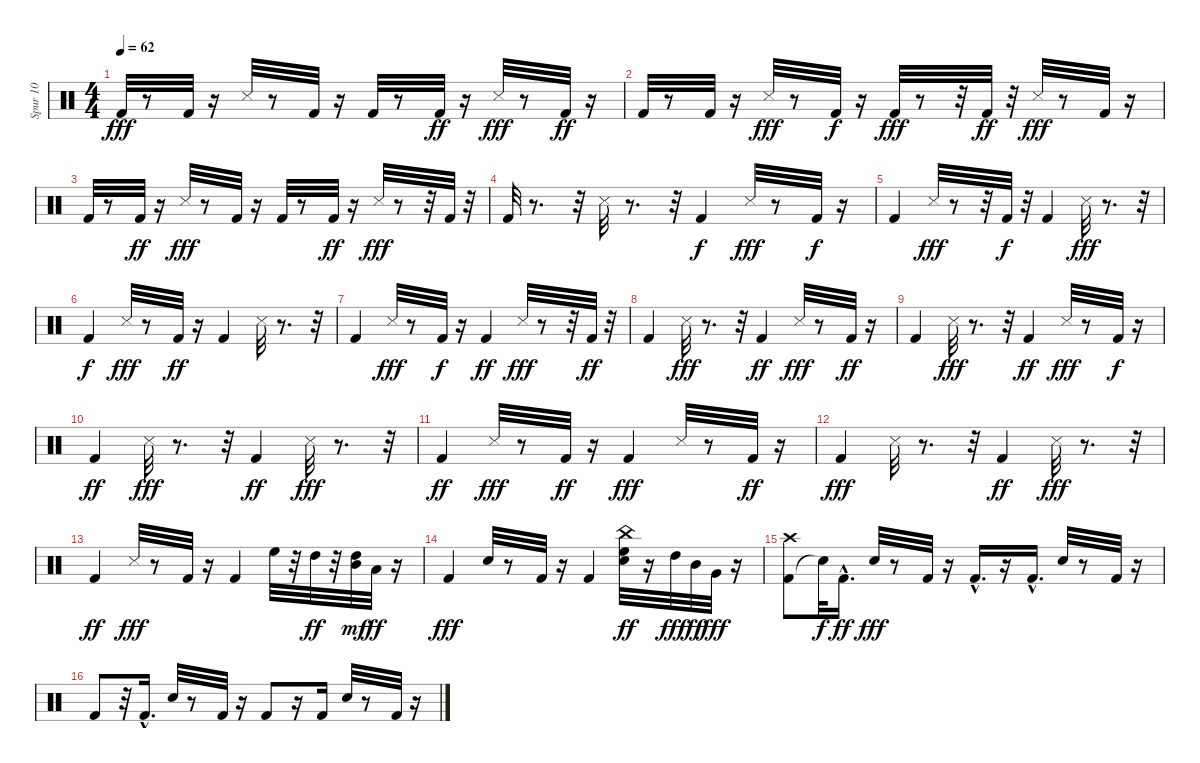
\track ("Spur 10" "Spur 10") {instrument percussion}
\staff {score}
\articulation defaults
\ts (4 4)
\tempo 62
\clef neutral
\ks c "Kick (hit) 2".32{dy fff}
r.8 "Kick (hit) 2".32 r.16 "Snare (side stick) 3".32 r.8 "Kick (hit) 2".32 r.16 "Kick (hit) 2".32 r.8 "Kick (hit) 2".32{dy ff} r.16 "Snare (side stick) 3".32{dy fff} r.8 "Kick (hit) 2".32{dy ff} r.16 |
"Kick (hit) 2".32 r.8 "Kick (hit) 2".32 r.16 "Snare (side stick) 3".32{dy fff} r.8 "Kick (hit) 2".32{dy f} r.16 "Kick (hit) 2".32{dy fff} r.8 r.32 "Kick (hit) 2".32{dy ff} r.32 "Snare (side stick) 3".32{dy fff} r.8 "Kick (hit) 2".32 r.16 |
"Kick (hit) 2".32 r.8 "Kick (hit) 2".32{dy ff} r.16 "Snare (side stick) 3".32{dy fff} r.8 "Kick (hit) 2".32 r.16 "Kick (hit) 2".32 r.8 "Kick (hit) 2".32{dy ff} r.16 "Snare (side stick) 3".32{dy fff} r.8 r.32 "Kick (hit) 2".32 r.32 |
"Kick (hit) 2".32 r.8{d} r.32 "Snare (side stick) 3".32 r.8{d} r.32 "Kick (hit) 2".4{dy f} "Snare (side stick) 3".32{dy fff} r.8 "Kick (hit) 2".32{dy f} r.16 |
"Kick (hit) 2".4 "Snare (side stick) 3".32{dy fff} r.8 r.32 "Kick (hit) 2".32{dy f} r.32 "Kick (hit) 2".4 "Snare (side stick) 3".32{dy fff} r.8{d} r.32 |
"Kick (hit) 2".4{dy f} "Snare (side stick) 3".32{dy fff} r.8 "Kick (hit) 2".32{dy ff} r.16 "Kick (hit) 2".4 "Snare (side stick) 3".32 r.8{d} r.32 |
"Kick (hit) 2".4 "Snare (side stick) 3".32{dy fff} r.8 "Kick (hit) 2".32{dy f} r.16 "Kick (hit) 2".4{dy ff} "Snare (side stick) 3".32{dy fff} r.8 r.32 "Kick (hit) 2".32{dy ff} r.32 |
"Kick (hit) 2".4 "Snare (side stick) 3".32{dy fff} r.8{d} r.32 "Kick (hit) 2".4{dy ff} "Snare (side stick) 3".32{dy fff} r.8 "Kick (hit) 2".32{dy ff} r.16 |
"Kick (hit) 2".4 "Snare (side stick) 3".32{dy fff} r.8{d} r.32 "Kick (hit) 2".4{dy ff} "Snare (side stick) 3".32{dy fff} r.8 "Kick (hit) 2".32{dy f} r.16 |
"Kick (hit) 2".4{dy ff} "Snare (side stick) 3".32{dy fff} r.8{d} r.32 "Kick (hit) 2".4{dy ff} "Snare (side stick) 3".32{dy fff} r.8{d} r.32 |
"Kick (hit) 2".4{dy ff} "Snare (side stick) 3".32{dy fff} r.8 "Kick (hit) 2".32{dy ff} r.16 "Kick (hit) 2".4{dy fff} "Snare (side stick) 3".32 r.8 "Kick (hit) 2".32{dy ff} r.16 |
"Kick (hit) 2".4{dy fff} "Snare (side stick) 3".32 r.8{d} r.32 "Kick (hit) 2".4{dy ff} "Snare (side stick) 3".32{dy fff} r.8{d} r.32 |
"Kick (hit) 2".4{dy ff} "Snare (side stick) 3".32{dy fff} r.8 "Kick (hit) 2".32 r.16 "Kick (hit) 2".4 "High Floor Tom (hit)".32 r.32 "High Tom (hit)".32{dy ff} r.32 ("Mid Tom (hit)" "High Tom (hit)").32{dy mf} "Low Tom (hit)".32{dy ff} r.16 |
"Kick (hit) 2".4{dy fff} "Electric Snare (hit)".32 r.8 "Kick (hit) 2".32 r.16 "Kick (hit) 2".4 ("Electric Snare (hit)" "High Floor Tom (hit)" "China (hit)").32{dy ff} r.16 "High Tom (hit)".32{dy fff} "Mid Tom (hit)".32{dy ff} "Very Low Tom (hit)".32{dy fff} r.16 |
("Kick (hit) 2" "Crash high (hit)").8 "Snare (hit)"{t}.32{dy f} "Kick (hit) 2"{hac}.16{d dy ff} "Electric Snare (hit)".32{dy fff} r.8 "Kick (hit) 2".32 r.16 "Kick (hit) 2"{hac}.16{d} r.16 "Kick (hit) 2"{hac}.16{d} "Electric Snare (hit)".32 r.8 "Kick (hit) 2".32 r.16 |
"Kick (hit) 2".8 r.32 "Kick (hit) 2"{hac}.16{d} "Electric Snare (hit)".32 r.8 "Kick (hit) 2".32 r.16 "Kick (hit) 2".8 r.16 "Kick (hit) 2".16 "Electric Snare (hit)".32 r.8 "Kick (hit) 2".32 r.16
